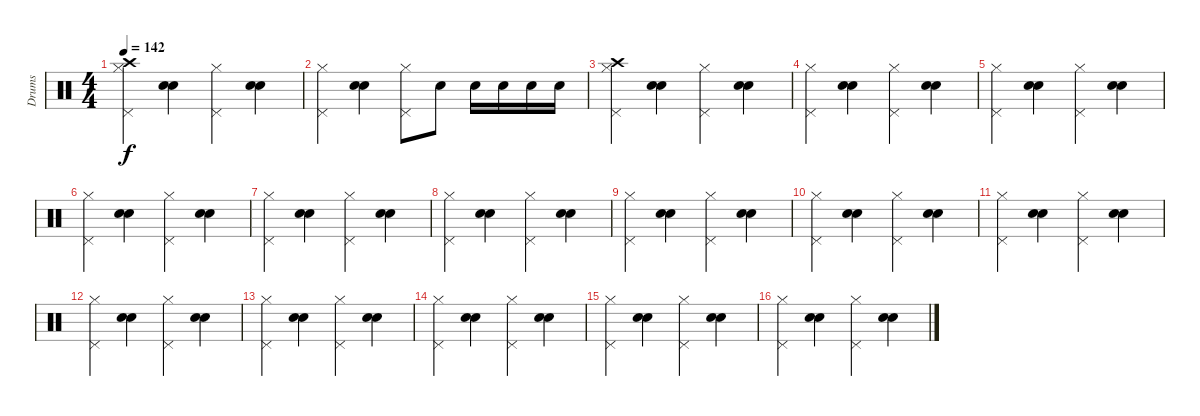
\track ("Drums" "Drums") {instrument percussion}
\staff {score}
\articulation defaults
\ts (4 4)
\tempo 142
\clef neutral
\ks c
("Crash high (hit)" "Hi-Hat (closed)" "Pedal Hi-Hat (hit)").4{dy f} ("Snare (hit) 2" "Electric Snare (hit)").4 ("Hi-Hat (closed)" "Pedal Hi-Hat (hit)").4 ("Snare (hit) 2" "Electric Snare (hit)").4 |
("Hi-Hat (closed)" "Pedal Hi-Hat (hit)").4 ("Snare (hit) 2" "Electric Snare (hit)").4 ("Hi-Hat (closed)" "Pedal Hi-Hat (hit)").8 "Snare (hit) 2".8 "Snare (hit) 2".16 "Snare (hit) 2".16 "Snare (hit) 2".16 "Snare (hit) 2".16 |
("Crash high (hit)" "Hi-Hat (closed)" "Pedal Hi-Hat (hit)").4 ("Snare (hit) 2" "Electric Snare (hit)").4 ("Hi-Hat (closed)" "Pedal Hi-Hat (hit)").4 ("Snare (hit) 2" "Electric Snare (hit)").4 |
("Hi-Hat (closed)" "Pedal Hi-Hat (hit)").4 ("Snare (hit) 2" "Electric Snare (hit)").4 ("Hi-Hat (closed)" "Pedal Hi-Hat (hit)").4 ("Snare (hit) 2" "Electric Snare (hit)").4 |
("Hi-Hat (closed)" "Pedal Hi-Hat (hit)").4 ("Snare (hit) 2" "Electric Snare (hit)").4 ("Hi-Hat (closed)" "Pedal Hi-Hat (hit)").4 ("Snare (hit) 2" "Electric Snare (hit)").4 |
("Hi-Hat (closed)" "Pedal Hi-Hat (hit)").4 ("Snare (hit) 2" "Electric Snare (hit)").4 ("Hi-Hat (closed)" "Pedal Hi-Hat (hit)").4 ("Snare (hit) 2" "Electric Snare (hit)").4 |
("Hi-Hat (closed)" "Pedal Hi-Hat (hit)").4 ("Snare (hit) 2" "Electric Snare (hit)").4 ("Hi-Hat (closed)" "Pedal Hi-Hat (hit)").4 ("Snare (hit) 2" "Electric Snare (hit)").4 |
("Hi-Hat (closed)" "Pedal Hi-Hat (hit)").4 ("Snare (hit) 2" "Electric Snare (hit)").4 ("Hi-Hat (closed)" "Pedal Hi-Hat (hit)").4 ("Snare (hit) 2" "Electric Snare (hit)").4 |
("Hi-Hat (closed)" "Pedal Hi-Hat (hit)").4 ("Snare (hit) 2" "Electric Snare (hit)").4 ("Hi-Hat (closed)" "Pedal Hi-Hat (hit)").4 ("Snare (hit) 2" "Electric Snare (hit)").4 |
("Hi-Hat (closed)" "Pedal Hi-Hat (hit)").4 ("Snare (hit) 2" "Electric Snare (hit)").4 ("Hi-Hat (closed)" "Pedal Hi-Hat (hit)").4 ("Snare (hit) 2" "Electric Snare (hit)").4 |
("Hi-Hat (closed)" "Pedal Hi-Hat (hit)").4 ("Snare (hit) 2" "Electric Snare (hit)").4 ("Hi-Hat (closed)" "Pedal Hi-Hat (hit)").4 ("Snare (hit) 2" "Electric Snare (hit)").4 |
("Hi-Hat (closed)" "Pedal Hi-Hat (hit)").4 ("Snare (hit) 2" "Electric Snare (hit)").4 ("Hi-Hat (closed)" "Pedal Hi-Hat (hit)").4 ("Snare (hit) 2" "Electric Snare (hit)").4 |
("Hi-Hat (closed)" "Pedal Hi-Hat (hit)").4 ("Snare (hit) 2" "Electric Snare (hit)").4 ("Hi-Hat (closed)" "Pedal Hi-Hat (hit)").4 ("Snare (hit) 2" "Electric Snare (hit)").4 |
("Hi-Hat (closed)" "Pedal Hi-Hat (hit)").4 ("Snare (hit) 2" "Electric Snare (hit)").4 ("Hi-Hat (closed)" "Pedal Hi-Hat (hit)").4 ("Snare (hit) 2" "Electric Snare (hit)").4 |
("Hi-Hat (closed)" "Pedal Hi-Hat (hit)").4 ("Snare (hit) 2" "Electric Snare (hit)").4 ("Hi-Hat (closed)" "Pedal Hi-Hat (hit)").4 ("Snare (hit) 2" "Electric Snare (hit)").4 |
("Hi-Hat (closed)" "Pedal Hi-Hat (hit)").4 ("Snare (hit) 2" "Electric Snare (hit)").4 ("Hi-Hat (closed)" "Pedal Hi-Hat (hit)").4 ("Snare (hit) 2" "Electric Snare (hit)").4
